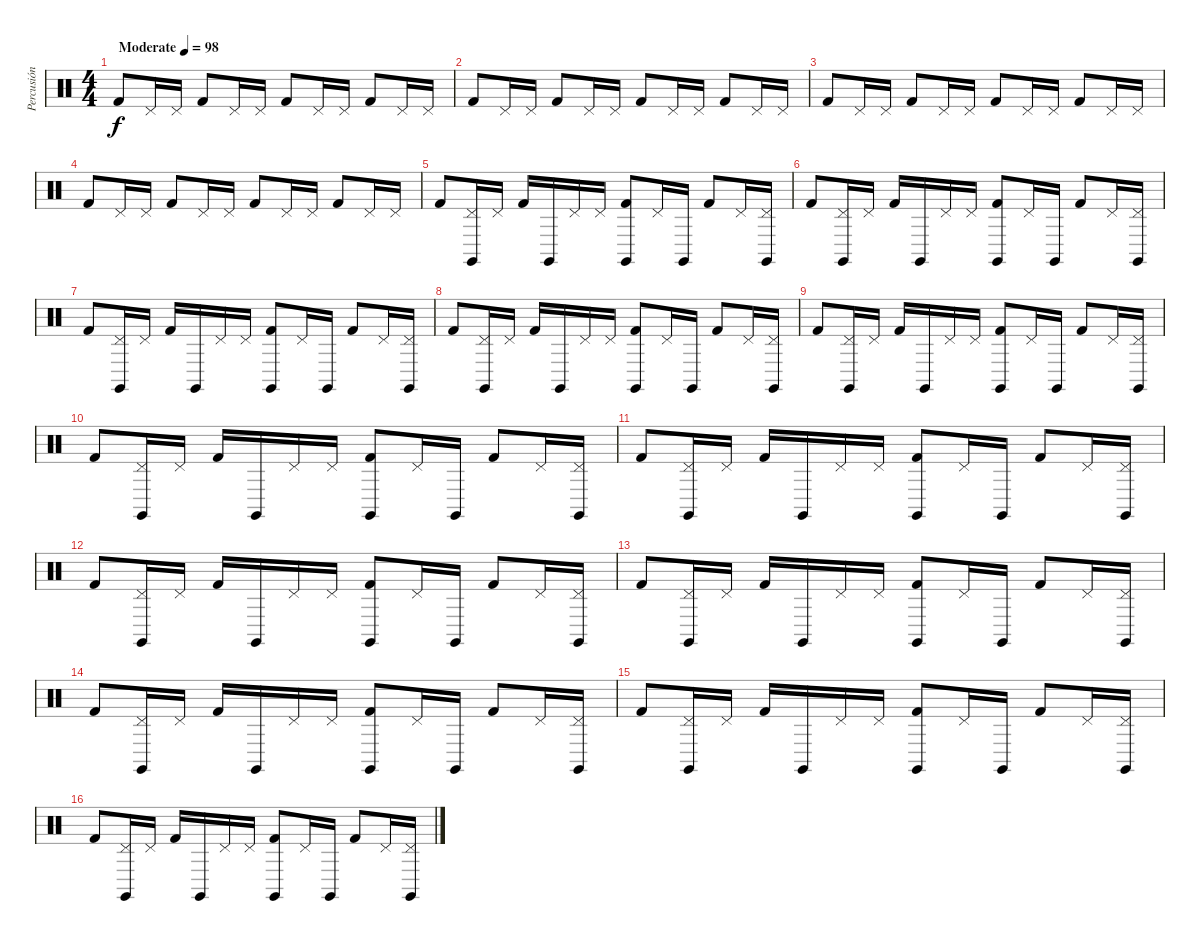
\track ("Percusión" "Percusión") {instrument percussion}
\staff {score}
\articulation defaults
\ts (4 4)
\tempo (98 "Moderate")
\clef neutral
\ks c "Kick (hit) 2".8{dy f} "Pedal Hi-Hat (hit)".16 "Pedal Hi-Hat (hit)".16 "Kick (hit) 2".8 "Pedal Hi-Hat (hit)".16 "Pedal Hi-Hat (hit)".16 "Kick (hit) 2".8 "Pedal Hi-Hat (hit)".16 "Pedal Hi-Hat (hit)".16 "Kick (hit) 2".8 "Pedal Hi-Hat (hit)".16 "Pedal Hi-Hat (hit)".16
|
"Kick (hit) 2".8 "Pedal Hi-Hat (hit)".16 "Pedal Hi-Hat (hit)".16 "Kick (hit) 2".8 "Pedal Hi-Hat (hit)".16 "Pedal Hi-Hat (hit)".16 "Kick (hit) 2".8 "Pedal Hi-Hat (hit)".16 "Pedal Hi-Hat (hit)".16 "Kick (hit) 2".8 "Pedal Hi-Hat (hit)".16 "Pedal Hi-Hat (hit)".16 |
"Kick (hit) 2".8 "Pedal Hi-Hat (hit)".16 "Pedal Hi-Hat (hit)".16 "Kick (hit) 2".8 "Pedal Hi-Hat (hit)".16 "Pedal Hi-Hat (hit)".16 "Kick (hit) 2".8 "Pedal Hi-Hat (hit)".16 "Pedal Hi-Hat (hit)".16 "Kick (hit) 2".8 "Pedal Hi-Hat (hit)".16 "Pedal Hi-Hat (hit)".16 |
"Kick (hit) 2".8 "Pedal Hi-Hat (hit)".16 "Pedal Hi-Hat (hit)".16 "Kick (hit) 2".8 "Pedal Hi-Hat (hit)".16 "Pedal Hi-Hat (hit)".16 "Kick (hit) 2".8 "Pedal Hi-Hat (hit)".16 "Pedal Hi-Hat (hit)".16 "Kick (hit) 2".8 "Pedal Hi-Hat (hit)".16 "Pedal Hi-Hat (hit)".16 |
"Kick (hit) 2".8 ("Claves (hit)" "Pedal Hi-Hat (hit)").16 "Pedal Hi-Hat (hit)".16 "Kick (hit) 2".16 "Claves (hit)".16 "Pedal Hi-Hat (hit)".16 "Pedal Hi-Hat (hit)".16 ("Claves (hit)" "Kick (hit) 2").8 "Pedal Hi-Hat (hit)".16 "Claves (hit)".16 "Kick (hit) 2".8 "Pedal Hi-Hat (hit)".16 ("Claves (hit)" "Pedal Hi-Hat (hit)").16 |
"Kick (hit) 2".8 ("Claves (hit)" "Pedal Hi-Hat (hit)").16 "Pedal Hi-Hat (hit)".16 "Kick (hit) 2".16 "Claves (hit)".16 "Pedal Hi-Hat (hit)".16 "Pedal Hi-Hat (hit)".16 ("Claves (hit)" "Kick (hit) 2").8 "Pedal Hi-Hat (hit)".16 "Claves (hit)".16 "Kick (hit) 2".8 "Pedal Hi-Hat (hit)".16 ("Claves (hit)" "Pedal Hi-Hat (hit)").16 |
"Kick (hit) 2".8 ("Claves (hit)" "Pedal Hi-Hat (hit)").16 "Pedal Hi-Hat (hit)".16 "Kick (hit) 2".16 "Claves (hit)".16 "Pedal Hi-Hat (hit)".16 "Pedal Hi-Hat (hit)".16 ("Claves (hit)" "Kick (hit) 2").8 "Pedal Hi-Hat (hit)".16 "Claves (hit)".16 "Kick (hit) 2".8 "Pedal Hi-Hat (hit)".16 ("Claves (hit)" "Pedal Hi-Hat (hit)").16 |
"Kick (hit) 2".8 ("Claves (hit)" "Pedal Hi-Hat (hit)").16 "Pedal Hi-Hat (hit)".16 "Kick (hit) 2".16 "Claves (hit)".16 "Pedal Hi-Hat (hit)".16 "Pedal Hi-Hat (hit)".16 ("Claves (hit)" "Kick (hit) 2").8 "Pedal Hi-Hat (hit)".16 "Claves (hit)".16 "Kick (hit) 2".8 "Pedal Hi-Hat (hit)".16 ("Claves (hit)" "Pedal Hi-Hat (hit)").16 |
"Kick (hit) 2".8 ("Claves (hit)" "Pedal Hi-Hat (hit)").16 "Pedal Hi-Hat (hit)".16 "Kick (hit) 2".16 "Claves (hit)".16 "Pedal Hi-Hat (hit)".16 "Pedal Hi-Hat (hit)".16 ("Claves (hit)" "Kick (hit) 2").8 "Pedal Hi-Hat (hit)".16 "Claves (hit)".16 "Kick (hit) 2".8 "Pedal Hi-Hat (hit)".16 ("Claves (hit)" "Pedal Hi-Hat (hit)").16 |
"Kick (hit) 2".8 ("Claves (hit)" "Pedal Hi-Hat (hit)").16 "Pedal Hi-Hat (hit)".16 "Kick (hit) 2".16 "Claves (hit)".16 "Pedal Hi-Hat (hit)".16 "Pedal Hi-Hat (hit)".16 ("Claves (hit)" "Kick (hit) 2").8 "Pedal Hi-Hat (hit)".16 "Claves (hit)".16 "Kick (hit) 2".8 "Pedal Hi-Hat (hit)".16 ("Claves (hit)" "Pedal Hi-Hat (hit)").16 |
"Kick (hit) 2".8 ("Claves (hit)" "Pedal Hi-Hat (hit)").16 "Pedal Hi-Hat (hit)".16 "Kick (hit) 2".16 "Claves (hit)".16 "Pedal Hi-Hat (hit)".16 "Pedal Hi-Hat (hit)".16 ("Claves (hit)" "Kick (hit) 2").8 "Pedal Hi-Hat (hit)".16 "Claves (hit)".16 "Kick (hit) 2".8 "Pedal Hi-Hat (hit)".16 ("Claves (hit)" "Pedal Hi-Hat (hit)").16 |
"Kick (hit) 2".8 ("Claves (hit)" "Pedal Hi-Hat (hit)").16 "Pedal Hi-Hat (hit)".16 "Kick (hit) 2".16 "Claves (hit)".16 "Pedal Hi-Hat (hit)".16 "Pedal Hi-Hat (hit)".16 ("Claves (hit)" "Kick (hit) 2").8 "Pedal Hi-Hat (hit)".16 "Claves (hit)".16 "Kick (hit) 2".8 "Pedal Hi-Hat (hit)".16 ("Claves (hit)" "Pedal Hi-Hat (hit)").16 |
"Kick (hit) 2".8 ("Claves (hit)" "Pedal Hi-Hat (hit)").16 "Pedal Hi-Hat (hit)".16 "Kick (hit) 2".16 "Claves (hit)".16 "Pedal Hi-Hat (hit)".16 "Pedal Hi-Hat (hit)".16 ("Claves (hit)" "Kick (hit) 2").8 "Pedal Hi-Hat (hit)".16 "Claves (hit)".16 "Kick (hit) 2".8 "Pedal Hi-Hat (hit)".16 ("Claves (hit)" "Pedal Hi-Hat (hit)").16 |
"Kick (hit) 2".8 ("Claves (hit)" "Pedal Hi-Hat (hit)").16 "Pedal Hi-Hat (hit)".16 "Kick (hit) 2".16 "Claves (hit)".16 "Pedal Hi-Hat (hit)".16 "Pedal Hi-Hat (hit)".16 ("Claves (hit)" "Kick (hit) 2").8 "Pedal Hi-Hat (hit)".16 "Claves (hit)".16 "Kick (hit) 2".8 "Pedal Hi-Hat (hit)".16 ("Claves (hit)" "Pedal Hi-Hat (hit)").16 |
"Kick (hit) 2".8 ("Claves (hit)" "Pedal Hi-Hat (hit)").16 "Pedal Hi-Hat (hit)".16 "Kick (hit) 2".16 "Claves (hit)".16 "Pedal Hi-Hat (hit)".16 "Pedal Hi-Hat (hit)".16 ("Claves (hit)" "Kick (hit) 2").8 "Pedal Hi-Hat (hit)".16 "Claves (hit)".16 "Kick (hit) 2".8 "Pedal Hi-Hat (hit)".16 ("Claves (hit)" "Pedal Hi-Hat (hit)").16 |
"Kick (hit) 2".8 ("Claves (hit)" "Pedal Hi-Hat (hit)").16 "Pedal Hi-Hat (hit)".16 "Kick (hit) 2".16 "Claves (hit)".16 "Pedal Hi-Hat (hit)".16 "Pedal Hi-Hat (hit)".16 ("Claves (hit)" "Kick (hit) 2").8 "Pedal Hi-Hat (hit)".16 "Claves (hit)".16 "Kick (hit) 2".8 "Pedal Hi-Hat (hit)".16 ("Claves (hit)" "Pedal Hi-Hat (hit)").16
